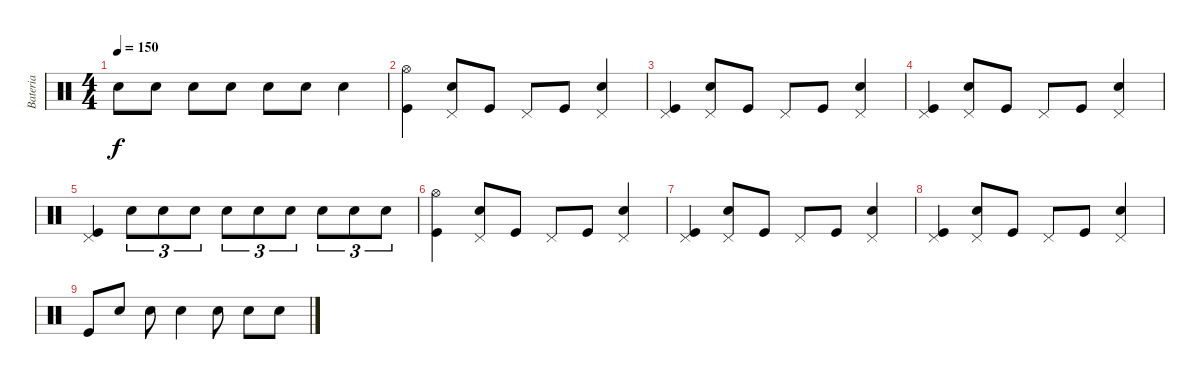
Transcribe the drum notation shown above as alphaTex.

\track ("Bateria" "Bateria") {instrument percussion}
\staff {score}
\articulation defaults
\ts (4 4)
\tempo 150
\clef neutral
\ks c "Snare (hit) 2".8{dy f} "Snare (hit) 2".8 "Snare (hit) 2".8 "Snare (hit) 2".8 "Snare (hit) 2".8 "Snare (hit) 2".8 "Snare (hit) 2".4
|
("Kick (hit)" "Hi-Hat (open)").4 ("Snare (hit) 2" "Pedal Hi-Hat (hit)").8 "Kick (hit)".8 "Pedal Hi-Hat (hit)".8 "Kick (hit)".8 ("Snare (hit) 2" "Pedal Hi-Hat (hit)").4 |
("Kick (hit)" "Pedal Hi-Hat (hit)").4 ("Snare (hit) 2" "Pedal Hi-Hat (hit)").8 "Kick (hit)".8 "Pedal Hi-Hat (hit)".8 "Kick (hit)".8 ("Snare (hit) 2" "Pedal Hi-Hat (hit)").4 |
("Kick (hit)" "Pedal Hi-Hat (hit)").4 ("Snare (hit) 2" "Pedal Hi-Hat (hit)").8 "Kick (hit)".8 "Pedal Hi-Hat (hit)".8 "Kick (hit)".8 ("Snare (hit) 2" "Pedal Hi-Hat (hit)").4 |
("Kick (hit)" "Pedal Hi-Hat (hit)").4 "Snare (hit) 2".8{tu (3 2)} "Snare (hit) 2".8{tu (3 2)} "Snare (hit) 2".8{tu (3 2)} "Snare (hit) 2".8{tu (3 2)} "Snare (hit) 2".8{tu (3 2)} "Snare (hit) 2".8{tu (3 2)} "Snare (hit) 2".8{tu (3 2)} "Snare (hit) 2".8{tu (3 2)} "Snare (hit) 2".8{tu (3 2)} |
("Kick (hit)" "Hi-Hat (open)").4 ("Snare (hit) 2" "Pedal Hi-Hat (hit)").8 "Kick (hit)".8 "Pedal Hi-Hat (hit)".8 "Kick (hit)".8 ("Snare (hit) 2" "Pedal Hi-Hat (hit)").4 |
("Kick (hit)" "Pedal Hi-Hat (hit)").4 ("Snare (hit) 2" "Pedal Hi-Hat (hit)").8 "Kick (hit)".8 "Pedal Hi-Hat (hit)".8 "Kick (hit)".8 ("Snare (hit) 2" "Pedal Hi-Hat (hit)").4 |
("Kick (hit)" "Pedal Hi-Hat (hit)").4 ("Snare (hit) 2" "Pedal Hi-Hat (hit)").8 "Kick (hit)".8 "Pedal Hi-Hat (hit)".8 "Kick (hit)".8 ("Snare (hit) 2" "Pedal Hi-Hat (hit)").4 |
"Kick (hit)".8 "Snare (hit) 2".8 "Snare (hit) 2".8 "Snare (hit) 2".4 "Snare (hit) 2".8 "Snare (hit) 2".8 "Snare (hit) 2".8
